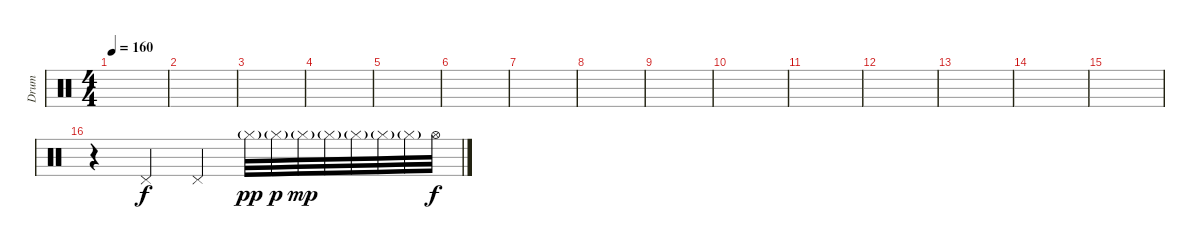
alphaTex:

\track ("Drum" "Drum") {instrument percussion}
\staff {score}
\articulation defaults
\ts (4 4)
\tempo 160
\tempo 105
\tempo 160
\clef neutral
\ks c
|
|
|
|
|
|
|
|
|
|
|
|
|
|
|
r.4 "Pedal Hi-Hat (hit)".4 "Pedal Hi-Hat (hit)".4 "Hi-Hat (closed)"{g}.32{dy pp} "Hi-Hat (closed)"{g}.32{dy p} "Hi-Hat (closed)"{g}.32{dy mp} "Hi-Hat (closed)"{g}.32 "Hi-Hat (closed)"{g}.32 "Hi-Hat (closed)"{g}.32 "Hi-Hat (closed)"{g}.32 "Hi-Hat (open)".32{dy f}
